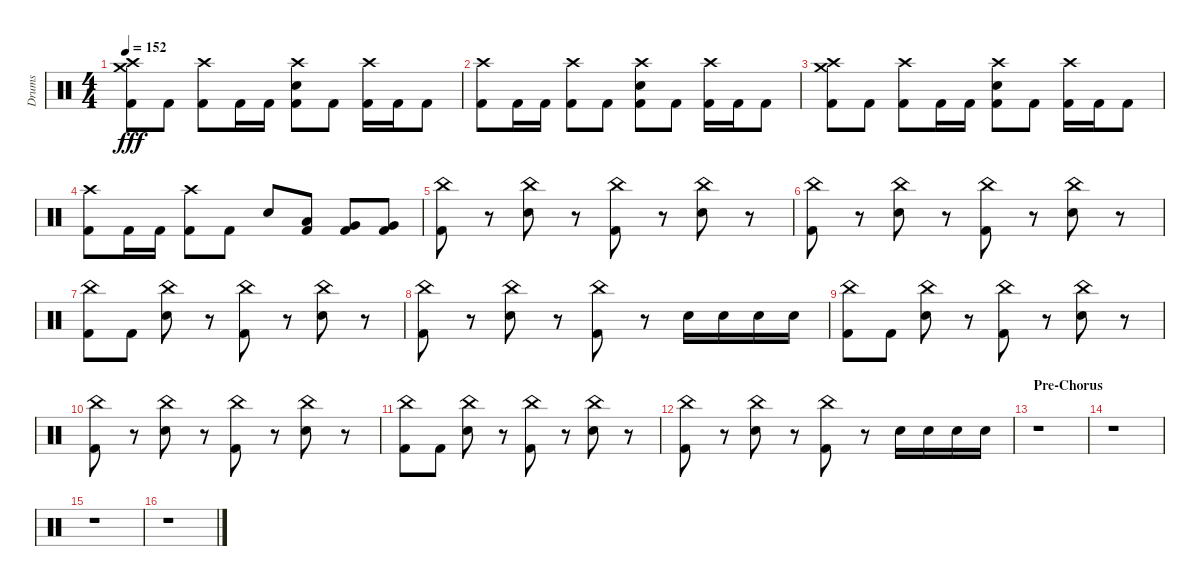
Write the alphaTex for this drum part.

\track ("Drums" "Drums") {instrument percussion}
\staff {score}
\articulation defaults
\ts (4 4)
\tempo 152
\clef neutral
\ks c
("Crash high (hit)" "Crash medium (hit)" "Kick (hit) 2").8{dy fff} "Kick (hit) 2".8 ("Crash high (hit)" "Kick (hit) 2").8 "Kick (hit) 2".16 "Kick (hit) 2".16 ("Crash high (hit)" "Snare (hit) 2" "Kick (hit) 2").8 "Kick (hit) 2".8 ("Crash high (hit)" "Kick (hit) 2").16 "Kick (hit) 2".16 "Kick (hit) 2".8 |
("Crash high (hit)" "Kick (hit) 2").8 "Kick (hit) 2".16 "Kick (hit) 2".16 ("Crash high (hit)" "Kick (hit) 2").8 "Kick (hit) 2".8 ("Crash high (hit)" "Snare (hit) 2" "Kick (hit) 2").8 "Kick (hit) 2".8 ("Crash high (hit)" "Kick (hit) 2").16 "Kick (hit) 2".16 "Kick (hit) 2".8 |
("Crash medium (hit)" "Crash high (hit)" "Kick (hit) 2").8 "Kick (hit) 2".8 ("Crash high (hit)" "Kick (hit) 2").8 "Kick (hit) 2".16 "Kick (hit) 2".16 ("Crash high (hit)" "Snare (hit) 2" "Kick (hit) 2").8 "Kick (hit) 2".8 ("Crash high (hit)" "Kick (hit) 2").16 "Kick (hit) 2".16 "Kick (hit) 2".8 |
("Crash high (hit)" "Kick (hit) 2").8 "Kick (hit) 2".16 "Kick (hit) 2".16 ("Crash high (hit)" "Kick (hit) 2").8 "Kick (hit) 2".8 "Snare (hit) 2".8 ("Low Tom (hit)" "Kick (hit) 2").8 ("Very Low Tom (hit)" "Kick (hit) 2").8 ("Very Low Tom (hit)" "Kick (hit) 2").8 |
("China (hit)" "Kick (hit) 2").8 r.8 ("China (hit)" "Snare (hit) 2").8 r.8 ("China (hit)" "Kick (hit) 2").8 r.8 ("China (hit)" "Snare (hit) 2").8 r.8 |
("China (hit)" "Kick (hit) 2").8 r.8 ("China (hit)" "Snare (hit) 2").8 r.8 ("China (hit)" "Kick (hit) 2").8 r.8 ("China (hit)" "Snare (hit) 2").8 r.8 |
("China (hit)" "Kick (hit) 2").8 "Kick (hit) 2".8 ("China (hit)" "Snare (hit) 2").8 r.8 ("China (hit)" "Kick (hit) 2").8 r.8 ("China (hit)" "Snare (hit) 2").8 r.8 |
("China (hit)" "Kick (hit) 2").8 r.8 ("China (hit)" "Snare (hit) 2").8 r.8 ("China (hit)" "Kick (hit) 2").8 r.8 "Snare (hit) 2".16 "Snare (hit) 2".16 "Snare (hit) 2".16 "Snare (hit) 2".16 |
("China (hit)" "Kick (hit) 2").8 "Kick (hit) 2".8 ("China (hit)" "Snare (hit) 2").8 r.8 ("China (hit)" "Kick (hit) 2").8 r.8 ("China (hit)" "Snare (hit) 2").8 r.8 |
("China (hit)" "Kick (hit) 2").8 r.8 ("China (hit)" "Snare (hit) 2").8 r.8 ("China (hit)" "Kick (hit) 2").8 r.8 ("China (hit)" "Snare (hit) 2").8 r.8 |
("China (hit)" "Kick (hit) 2").8 "Kick (hit) 2".8 ("China (hit)" "Snare (hit) 2").8 r.8 ("China (hit)" "Kick (hit) 2").8 r.8 ("China (hit)" "Snare (hit) 2").8 r.8 |
\section ("" "")
("China (hit)" "Kick (hit) 2").8 r.8 ("China (hit)" "Snare (hit) 2").8 r.8 ("China (hit)" "Kick (hit) 2").8 r.8 "Snare (hit) 2".16 "Snare (hit) 2".16 "Snare (hit) 2".16 "Snare (hit) 2".16 |
\section ("" "Pre-Chorus")
r.1 |
r.1 |
r.1 |
r.1
